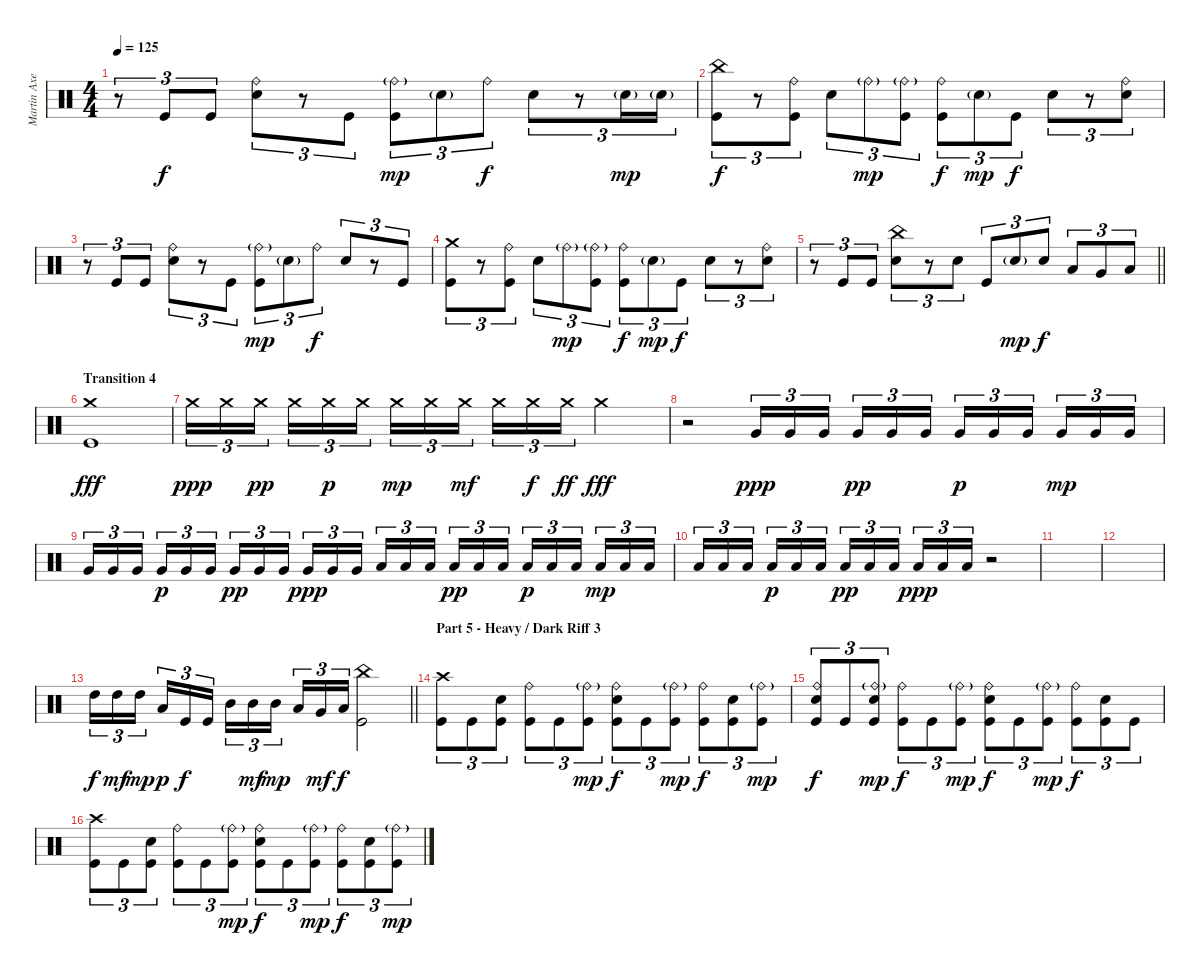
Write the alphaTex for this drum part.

\track ("Martin Axenrot" "Martin Axe") {instrument percussion}
\staff {score}
\articulation defaults
\ts (4 4)
\tempo 125
\clef neutral
\ks c
r.8{tu (3 2) dy f} "Kick (hit)".8{tu (3 2)} "Kick (hit)".8{tu (3 2)} ("Ride (bell)" "Snare (hit) 2").8{tu (3 2)} r.8{tu (3 2)} "Kick (hit)".8{tu (3 2)} ("Ride (bell)"{g} "Kick (hit)").8{tu (3 2) dy mp} "Snare (hit) 2"{g}.8{tu (3 2)} "Ride (bell)".8{tu (3 2) dy f} "Snare (hit) 2".8{tu (3 2)} r.8{tu (3 2)} "Snare (hit) 2"{g}.16{tu (3 2) dy mp} "Snare (hit) 2"{g}.16{tu (3 2)} |
("China (hit)" "Kick (hit)").8{tu (3 2) dy f} r.8{tu (3 2)} ("Ride (bell)" "Kick (hit)").8{tu (3 2)} "Snare (hit) 2".8{tu (3 2)} "Ride (bell)"{g}.8{tu (3 2) dy mp} ("Ride (bell)"{g} "Kick (hit)").8{tu (3 2)} ("Ride (bell)" "Kick (hit)").8{tu (3 2) dy f} "Snare (hit) 2"{g}.8{tu (3 2) dy mp} "Kick (hit)".8{tu (3 2) dy f} "Snare (hit) 2".8{tu (3 2)} r.8{tu (3 2)} ("Ride (bell)" "Snare (hit) 2").8{tu (3 2)} |
r.8{tu (3 2)} "Kick (hit)".8{tu (3 2)} "Kick (hit)".8{tu (3 2)} ("Ride (bell)" "Snare (hit) 2").8{tu (3 2)} r.8{tu (3 2)} "Kick (hit)".8{tu (3 2)} ("Ride (bell)"{g} "Kick (hit)").8{tu (3 2) dy mp} "Snare (hit) 2"{g}.8{tu (3 2)} "Ride (bell)".8{tu (3 2) dy f} "Snare (hit) 2".8{tu (3 2)} r.8{tu (3 2)} "Kick (hit)".8{tu (3 2)} |
("Crash medium (hit)" "Kick (hit)").8{tu (3 2)} r.8{tu (3 2)} ("Ride (bell)" "Kick (hit)").8{tu (3 2)} "Snare (hit) 2".8{tu (3 2)} "Ride (bell)"{g}.8{tu (3 2) dy mp} ("Ride (bell)"{g} "Kick (hit)").8{tu (3 2)} ("Ride (bell)" "Kick (hit)").8{tu (3 2) dy f} "Snare (hit) 2"{g}.8{tu (3 2) dy mp} "Kick (hit)".8{tu (3 2) dy f} "Snare (hit) 2".8{tu (3 2)} r.8{tu (3 2)} ("Ride (bell)" "Snare (hit) 2").8{tu (3 2)} |
\barLineRight lightlight
r.8{tu (3 2)} "Kick (hit)".8{tu (3 2)} "Kick (hit)".8{tu (3 2)} ("China (hit)" "Snare (hit) 2").8{tu (3 2)} r.8{tu (3 2)} "Snare (hit) 2".8{tu (3 2)} "Kick (hit)".8{tu (3 2)} "Snare (hit) 2"{g}.8{tu (3 2) dy mp} "Snare (hit) 2".8{tu (3 2) dy f} "Low Tom (hit)".8{tu (3 2)} "Very Low Tom (hit)".8{tu (3 2)} "Low Floor Tom (hit)".8{tu (3 2)} |
\section ("" "Transition 4")
("Crash medium (hit)" "Kick (hit)").1{dy fff} |
"Crash medium (hit)".16{tu (3 2) dy ppp} "Crash medium (hit)".16{tu (3 2)} "Crash medium (hit)".16{tu (3 2) dy pp beam splitsecondary} "Crash medium (hit)".16{tu (3 2)} "Crash medium (hit)".16{tu (3 2) dy p} "Crash medium (hit)".16{tu (3 2)} "Crash medium (hit)".16{tu (3 2) dy mp} "Crash medium (hit)".16{tu (3 2)} "Crash medium (hit)".16{tu (3 2) dy mf beam splitsecondary} "Crash medium (hit)".16{tu (3 2)} "Crash medium (hit)".16{tu (3 2) dy f} "Crash medium (hit)".16{tu (3 2) dy ff} "Crash medium (hit)".2{dy fff} |
r.2 "Very Low Tom (hit)".16{tu (3 2) dy ppp} "Very Low Tom (hit)".16{tu (3 2)} "Very Low Tom (hit)".16{tu (3 2) beam splitsecondary} "Very Low Tom (hit)".16{tu (3 2) dy pp} "Very Low Tom (hit)".16{tu (3 2)} "Very Low Tom (hit)".16{tu (3 2)} "Very Low Tom (hit)".16{tu (3 2) dy p} "Very Low Tom (hit)".16{tu (3 2)} "Very Low Tom (hit)".16{tu (3 2) beam splitsecondary} "Very Low Tom (hit)".16{tu (3 2) dy mp} "Very Low Tom (hit)".16{tu (3 2)} "Very Low Tom (hit)".16{tu (3 2)} |
"Very Low Tom (hit)".16{tu (3 2)} "Very Low Tom (hit)".16{tu (3 2)} "Very Low Tom (hit)".16{tu (3 2) beam splitsecondary} "Very Low Tom (hit)".16{tu (3 2) dy p} "Very Low Tom (hit)".16{tu (3 2)} "Very Low Tom (hit)".16{tu (3 2)} "Very Low Tom (hit)".16{tu (3 2) dy pp} "Very Low Tom (hit)".16{tu (3 2)} "Very Low Tom (hit)".16{tu (3 2) beam splitsecondary} "Very Low Tom (hit)".16{tu (3 2) dy ppp} "Very Low Tom (hit)".16{tu (3 2)} "Very Low Tom (hit)".16{tu (3 2)} "Low Floor Tom (hit)".16{tu (3 2)} "Low Floor Tom (hit)".16{tu (3 2)} "Low Floor Tom (hit)".16{tu (3 2) beam splitsecondary} "Low Floor Tom (hit)".16{tu (3 2) dy pp} "Low Floor Tom (hit)".16{tu (3 2)} "Low Floor Tom (hit)".16{tu (3 2)} "Low Floor Tom (hit)".16{tu (3 2) dy p} "Low Floor Tom (hit)".16{tu (3 2)} "Low Floor Tom (hit)".16{tu (3 2) beam splitsecondary} "Low Floor Tom (hit)".16{tu (3 2) dy mp} "Low Floor Tom (hit)".16{tu (3 2)} "Low Floor Tom (hit)".16{tu (3 2)} |
"Low Floor Tom (hit)".16{tu (3 2)} "Low Floor Tom (hit)".16{tu (3 2)} "Low Floor Tom (hit)".16{tu (3 2) beam splitsecondary} "Low Floor Tom (hit)".16{tu (3 2) dy p} "Low Floor Tom (hit)".16{tu (3 2)} "Low Floor Tom (hit)".16{tu (3 2)} "Low Floor Tom (hit)".16{tu (3 2) dy pp} "Low Floor Tom (hit)".16{tu (3 2)} "Low Floor Tom (hit)".16{tu (3 2) beam splitsecondary} "Low Floor Tom (hit)".16{tu (3 2) dy ppp} "Low Floor Tom (hit)".16{tu (3 2)} "Low Floor Tom (hit)".16{tu (3 2)} r.2 |
|
|
\barLineRight lightlight "High Tom (hit)".16{tu (3 2) dy f} "High Tom (hit)".16{tu (3 2) dy mf} "High Tom (hit)".16{tu (3 2) dy mp beam splitsecondary} "Low Tom (hit)".16{tu (3 2) dy p} "Kick (hit)".16{tu (3 2) dy f} "Kick (hit)".16{tu (3 2)} "Mid Tom (hit)".16{tu (3 2)} "Mid Tom (hit)".16{tu (3 2) dy mf} "Mid Tom (hit)".16{tu (3 2) dy mp beam splitsecondary} "Low Tom (hit)".16{tu (3 2)} "Very Low Tom (hit)".16{tu (3 2) dy mf} "Low Floor Tom (hit)".16{tu (3 2) dy f}
("China (hit)" "Kick (hit)").2 |
\section ("" "Part 5 - Heavy / Dark Riff 3")
("Crash high (hit)" "Kick (hit)").8{tu (3 2)} "Kick (hit)".8{tu (3 2)} ("Snare (hit) 2" "Kick (hit)").8{tu (3 2)} ("Ride (bell)" "Kick (hit)").8{tu (3 2)} "Kick (hit)".8{tu (3 2)} ("Ride (bell)"{g} "Kick (hit)").8{tu (3 2) dy mp} ("Ride (bell)" "Snare (hit) 2" "Kick (hit)").8{tu (3 2) dy f} "Kick (hit)".8{tu (3 2)} ("Ride (bell)"{g} "Kick (hit)").8{tu (3 2) dy mp} ("Ride (bell)" "Kick (hit)").8{tu (3 2) dy f} ("Snare (hit) 2" "Kick (hit)").8{tu (3 2)} ("Ride (bell)"{g} "Kick (hit)").8{tu (3 2) dy mp} |
("Ride (bell)" "Snare (hit) 2" "Kick (hit)").8{tu (3 2) dy f} "Kick (hit)".8{tu (3 2)} ("Ride (bell)"{g} "Snare (hit) 2" "Kick (hit)").8{tu (3 2) dy mp} ("Ride (bell)" "Kick (hit)").8{tu (3 2) dy f} "Kick (hit)".8{tu (3 2)} ("Ride (bell)"{g} "Kick (hit)").8{tu (3 2) dy mp} ("Ride (bell)" "Snare (hit) 2" "Kick (hit)").8{tu (3 2) dy f} "Kick (hit)".8{tu (3 2)} ("Ride (bell)"{g} "Kick (hit)").8{tu (3 2) dy mp} ("Ride (bell)" "Kick (hit)").8{tu (3 2) dy f} ("Snare (hit) 2" "Kick (hit)").8{tu (3 2)} "Kick (hit)".8{tu (3 2)} |
("Crash high (hit)" "Kick (hit)").8{tu (3 2)} "Kick (hit)".8{tu (3 2)} ("Snare (hit) 2" "Kick (hit)").8{tu (3 2)} ("Ride (bell)" "Kick (hit)").8{tu (3 2)} "Kick (hit)".8{tu (3 2)} ("Ride (bell)"{g} "Kick (hit)").8{tu (3 2) dy mp} ("Ride (bell)" "Snare (hit) 2" "Kick (hit)").8{tu (3 2) dy f} "Kick (hit)".8{tu (3 2)} ("Ride (bell)"{g} "Kick (hit)").8{tu (3 2) dy mp} ("Ride (bell)" "Kick (hit)").8{tu (3 2) dy f} ("Snare (hit) 2" "Kick (hit)").8{tu (3 2)} ("Ride (bell)"{g} "Kick (hit)").8{tu (3 2) dy mp}
